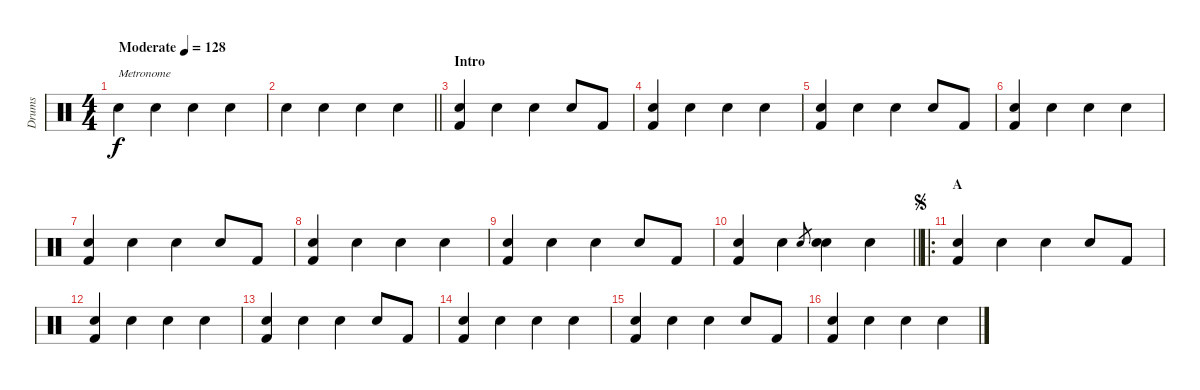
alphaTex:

\track ("Drums" "Drums") {instrument percussion}
\staff {score}
\articulation defaults
\ts (4 4)
\tempo (128 "Moderate")
\clef neutral
\ks c "Metronome (bell)".4{txt "Metronome" dy f} "Metronome (bell)".4 "Metronome (bell)".4 "Metronome (bell)".4
|
\barLineRight lightlight "Metronome (bell)".4 "Metronome (bell)".4 "Metronome (bell)".4 "Metronome (bell)".4
|
\section ("" "Intro")
("Metronome (bell)" "Kick (hit) 2").4 "Metronome (bell)".4 "Metronome (bell)".4 "Metronome (bell)".8 "Kick (hit) 2".8 |
("Metronome (bell)" "Kick (hit) 2").4 "Metronome (bell)".4 "Metronome (bell)".4 "Metronome (bell)".4 |
("Metronome (bell)" "Kick (hit) 2").4 "Metronome (bell)".4 "Metronome (bell)".4 "Metronome (bell)".8 "Kick (hit) 2".8 |
("Metronome (bell)" "Kick (hit) 2").4 "Metronome (bell)".4 "Metronome (bell)".4 "Metronome (bell)".4 |
("Metronome (bell)" "Kick (hit) 2").4 "Metronome (bell)".4 "Metronome (bell)".4 "Metronome (bell)".8 "Kick (hit) 2".8 |
("Metronome (bell)" "Kick (hit) 2").4 "Metronome (bell)".4 "Metronome (bell)".4 "Metronome (bell)".4 |
("Metronome (bell)" "Kick (hit) 2").4 "Metronome (bell)".4 "Metronome (bell)".4 "Metronome (bell)".8 "Kick (hit) 2".8 |
\barLineRight lightlight
("Metronome (bell)" "Kick (hit) 2").4 "Metronome (bell)".4 "Snare (hit) 2".8{gr} ("Metronome (bell)" "Snare (hit) 2").4 "Metronome (bell)".4 |
\ro
\section ("" "A")
\jump segno
("Metronome (bell)" "Kick (hit) 2").4 "Metronome (bell)".4 "Metronome (bell)".4 "Metronome (bell)".8 "Kick (hit) 2".8 |
("Metronome (bell)" "Kick (hit) 2").4 "Metronome (bell)".4 "Metronome (bell)".4 "Metronome (bell)".4 |
("Metronome (bell)" "Kick (hit) 2").4 "Metronome (bell)".4 "Metronome (bell)".4 "Metronome (bell)".8 "Kick (hit) 2".8 |
("Metronome (bell)" "Kick (hit) 2").4 "Metronome (bell)".4 "Metronome (bell)".4 "Metronome (bell)".4 |
("Metronome (bell)" "Kick (hit) 2").4 "Metronome (bell)".4 "Metronome (bell)".4 "Metronome (bell)".8 "Kick (hit) 2".8 |
("Metronome (bell)" "Kick (hit) 2").4 "Metronome (bell)".4 "Metronome (bell)".4 "Metronome (bell)".4
